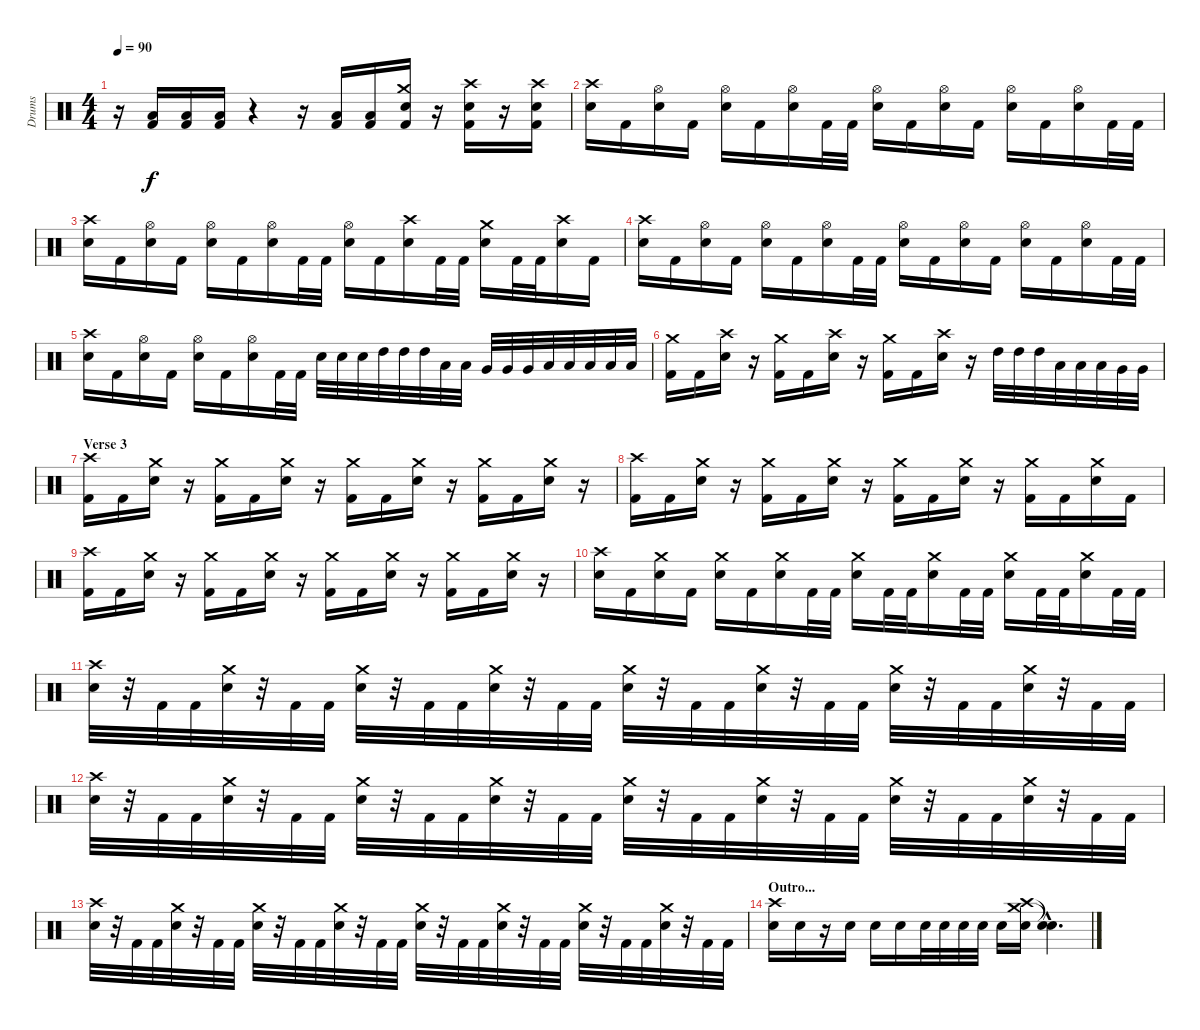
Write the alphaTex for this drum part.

\track ("Drums" "Drums") {instrument percussion}
\staff {score}
\articulation defaults
\ts (4 4)
\tempo 90
\clef neutral
\ks c
r.16{dy f} ("Low Tom (hit)" "Kick (hit) 2").16 ("Low Tom (hit)" "Kick (hit) 2").16 ("Low Tom (hit)" "Kick (hit) 2").16 r.4 r.16 ("Low Tom (hit)" "Kick (hit) 2").16 ("Low Tom (hit)" "Kick (hit) 2").16 ("Crash medium (hit)" "Snare (hit) 2" "Kick (hit) 2").16 r.16 ("Crash high (hit)" "Snare (hit) 2" "Kick (hit) 2").16 r.16 ("Crash high (hit)" "Snare (hit) 2" "Kick (hit) 2").16 |
("Crash high (hit)" "Snare (hit) 2").16 "Kick (hit) 2".16 ("Hi-Hat (open)" "Snare (hit) 2").16 "Kick (hit) 2".16 ("Hi-Hat (open)" "Snare (hit) 2").16 "Kick (hit) 2".16 ("Hi-Hat (open)" "Snare (hit) 2").16 "Kick (hit) 2".32 "Kick (hit) 2".32 ("Hi-Hat (open)" "Snare (hit) 2").16 "Kick (hit) 2".16 ("Hi-Hat (open)" "Snare (hit) 2").16 "Kick (hit) 2".16 ("Hi-Hat (open)" "Snare (hit) 2").16 "Kick (hit) 2".16 ("Hi-Hat (open)" "Snare (hit) 2").16 "Kick (hit) 2".32 "Kick (hit) 2".32 |
("Crash high (hit)" "Snare (hit) 2").16 "Kick (hit) 2".16 ("Hi-Hat (open)" "Snare (hit) 2").16 "Kick (hit) 2".16 ("Hi-Hat (open)" "Snare (hit) 2").16 "Kick (hit) 2".16 ("Hi-Hat (open)" "Snare (hit) 2").16 "Kick (hit) 2".32 "Kick (hit) 2".32 ("Hi-Hat (open)" "Snare (hit) 2").16 "Kick (hit) 2".16 ("Crash high (hit)" "Snare (hit) 2").16 "Kick (hit) 2".32 "Kick (hit) 2".32 ("Crash medium (hit)" "Snare (hit) 2").16 "Kick (hit) 2".32 "Kick (hit) 2".32 ("Crash high (hit)" "Snare (hit) 2").16 "Kick (hit) 2".16 |
("Crash high (hit)" "Snare (hit) 2").16 "Kick (hit) 2".16 ("Hi-Hat (open)" "Snare (hit) 2").16 "Kick (hit) 2".16 ("Hi-Hat (open)" "Snare (hit) 2").16 "Kick (hit) 2".16 ("Hi-Hat (open)" "Snare (hit) 2").16 "Kick (hit) 2".32 "Kick (hit) 2".32 ("Hi-Hat (open)" "Snare (hit) 2").16 "Kick (hit) 2".16 ("Hi-Hat (open)" "Snare (hit) 2").16 "Kick (hit) 2".16 ("Hi-Hat (open)" "Snare (hit) 2").16 "Kick (hit) 2".16 ("Hi-Hat (open)" "Snare (hit) 2").16 "Kick (hit) 2".32 "Kick (hit) 2".32 |
("Crash high (hit)" "Snare (hit) 2").16 "Kick (hit) 2".16 ("Hi-Hat (open)" "Snare (hit) 2").16 "Kick (hit) 2".16 ("Hi-Hat (open)" "Snare (hit) 2").16 "Kick (hit) 2".16 ("Hi-Hat (open)" "Snare (hit) 2").16 "Kick (hit) 2".32 "Kick (hit) 2".32 "Snare (hit) 2".32 "Snare (hit) 2".32 "Snare (hit) 2".32 "High Tom (hit)".32 "High Tom (hit)".32 "High Tom (hit)".32 "Low Tom (hit)".32 "Low Tom (hit)".32 "Very Low Tom (hit)".32 "Very Low Tom (hit)".32 "Very Low Tom (hit)".32 "Low Floor Tom (hit)".32 "Low Floor Tom (hit)".32 "Low Floor Tom (hit)".32 "Low Floor Tom (hit)".32 "Low Floor Tom (hit)".32 |
("Crash medium (hit)" "Kick (hit) 2").16 "Kick (hit) 2".16 ("Crash high (hit)" "Snare (hit) 2").16 r.16 ("Crash medium (hit)" "Kick (hit) 2").16 "Kick (hit) 2".16 ("Crash high (hit)" "Snare (hit) 2").16 r.16 ("Crash medium (hit)" "Kick (hit) 2").16 "Kick (hit) 2".16 ("Crash high (hit)" "Snare (hit) 2").16 r.16 "High Tom (hit)".32 "High Tom (hit)".32 "High Tom (hit)".32 "Low Tom (hit)".32 "Low Tom (hit)".32 "Low Tom (hit)".32 "Very Low Tom (hit)".32 "Very Low Tom (hit)".32 |
\section ("" "Verse 3")
("Crash high (hit)" "Kick (hit) 2").16 "Kick (hit) 2".16 ("Crash medium (hit)" "Snare (hit) 2").16 r.16 ("Crash medium (hit)" "Kick (hit) 2").16 "Kick (hit) 2".16 ("Crash medium (hit)" "Snare (hit) 2").16 r.16 ("Crash medium (hit)" "Kick (hit) 2").16 "Kick (hit) 2".16 ("Crash medium (hit)" "Snare (hit) 2").16 r.16 ("Crash medium (hit)" "Kick (hit) 2").16 "Kick (hit) 2".16 ("Crash medium (hit)" "Snare (hit) 2").16 r.16 |
("Crash high (hit)" "Kick (hit) 2").16 "Kick (hit) 2".16 ("Crash medium (hit)" "Snare (hit) 2").16 r.16 ("Crash medium (hit)" "Kick (hit) 2").16 "Kick (hit) 2".16 ("Crash medium (hit)" "Snare (hit) 2").16 r.16 ("Crash medium (hit)" "Kick (hit) 2").16 "Kick (hit) 2".16 ("Crash medium (hit)" "Snare (hit) 2").16 r.16 ("Crash medium (hit)" "Kick (hit) 2").16 "Kick (hit) 2".16 ("Crash medium (hit)" "Snare (hit) 2").16 "Kick (hit) 2".16 |
("Crash high (hit)" "Kick (hit) 2").16 "Kick (hit) 2".16 ("Crash medium (hit)" "Snare (hit) 2").16 r.16 ("Crash medium (hit)" "Kick (hit) 2").16 "Kick (hit) 2".16 ("Crash medium (hit)" "Snare (hit) 2").16 r.16 ("Crash medium (hit)" "Kick (hit) 2").16 "Kick (hit) 2".16 ("Crash medium (hit)" "Snare (hit) 2").16 r.16 ("Crash medium (hit)" "Kick (hit) 2").16 "Kick (hit) 2".16 ("Crash medium (hit)" "Snare (hit) 2").16 r.16 |
("Crash high (hit)" "Snare (hit) 2").16 "Kick (hit) 2".16 ("Crash medium (hit)" "Snare (hit) 2").16 "Kick (hit) 2".16 ("Crash medium (hit)" "Snare (hit) 2").16 "Kick (hit) 2".16 ("Crash medium (hit)" "Snare (hit) 2").16 "Kick (hit) 2".32 "Kick (hit) 2".32 ("Crash medium (hit)" "Snare (hit) 2").16 "Kick (hit) 2".32 "Kick (hit) 2".32 ("Crash medium (hit)" "Snare (hit) 2").16 "Kick (hit) 2".32 "Kick (hit) 2".32 ("Crash medium (hit)" "Snare (hit) 2").16 "Kick (hit) 2".32 "Kick (hit) 2".32 ("Crash medium (hit)" "Snare (hit) 2").16 "Kick (hit) 2".32 "Kick (hit) 2".32 |
("Crash high (hit)" "Snare (hit) 2").32 r.32 "Kick (hit) 2".32 "Kick (hit) 2".32 ("Crash medium (hit)" "Snare (hit) 2").32 r.32 "Kick (hit) 2".32 "Kick (hit) 2".32 ("Crash medium (hit)" "Snare (hit) 2").32 r.32 "Kick (hit) 2".32 "Kick (hit) 2".32 ("Crash medium (hit)" "Snare (hit) 2").32 r.32 "Kick (hit) 2".32 "Kick (hit) 2".32 ("Crash medium (hit)" "Snare (hit) 2").32 r.32 "Kick (hit) 2".32 "Kick (hit) 2".32 ("Crash medium (hit)" "Snare (hit) 2").32 r.32 "Kick (hit) 2".32 "Kick (hit) 2".32 ("Crash medium (hit)" "Snare (hit) 2").32 r.32 "Kick (hit) 2".32 "Kick (hit) 2".32 ("Crash medium (hit)" "Snare (hit) 2").32 r.32 "Kick (hit) 2".32 "Kick (hit) 2".32 |
("Crash high (hit)" "Snare (hit) 2").32 r.32 "Kick (hit) 2".32 "Kick (hit) 2".32 ("Crash medium (hit)" "Snare (hit) 2").32 r.32 "Kick (hit) 2".32 "Kick (hit) 2".32 ("Crash medium (hit)" "Snare (hit) 2").32 r.32 "Kick (hit) 2".32 "Kick (hit) 2".32 ("Crash medium (hit)" "Snare (hit) 2").32 r.32 "Kick (hit) 2".32 "Kick (hit) 2".32 ("Crash medium (hit)" "Snare (hit) 2").32 r.32 "Kick (hit) 2".32 "Kick (hit) 2".32 ("Crash medium (hit)" "Snare (hit) 2").32 r.32 "Kick (hit) 2".32 "Kick (hit) 2".32 ("Crash medium (hit)" "Snare (hit) 2").32 r.32 "Kick (hit) 2".32 "Kick (hit) 2".32 ("Crash medium (hit)" "Snare (hit) 2").32 r.32 "Kick (hit) 2".32 "Kick (hit) 2".32 |
("Crash high (hit)" "Snare (hit) 2").32 r.32 "Kick (hit) 2".32 "Kick (hit) 2".32 ("Crash medium (hit)" "Snare (hit) 2").32 r.32 "Kick (hit) 2".32 "Kick (hit) 2".32 ("Crash medium (hit)" "Snare (hit) 2").32 r.32 "Kick (hit) 2".32 "Kick (hit) 2".32 ("Crash medium (hit)" "Snare (hit) 2").32 r.32 "Kick (hit) 2".32 "Kick (hit) 2".32 ("Crash medium (hit)" "Snare (hit) 2").32 r.32 "Kick (hit) 2".32 "Kick (hit) 2".32 ("Crash medium (hit)" "Snare (hit) 2").32 r.32 "Kick (hit) 2".32 "Kick (hit) 2".32 ("Crash medium (hit)" "Snare (hit) 2").32 r.32 "Kick (hit) 2".32 "Kick (hit) 2".32 ("Crash medium (hit)" "Snare (hit) 2").32 r.32 "Kick (hit) 2".32 "Kick (hit) 2".32 |
\section ("" "Outro...")
("Crash high (hit)" "Snare (hit) 2").16 "Snare (hit) 2".16 r.16 "Snare (hit) 2".16 "Snare (hit) 2".16 "Snare (hit) 2".16 "Snare (hit) 2".32 "Snare (hit) 2".32 "Snare (hit) 2".32 "Snare (hit) 2".32 "Snare (hit) 2".16 ("Crash medium (hit)" "Crash high (hit)" "Snare (hit) 2").16 ("Snare (hit)"{hac t} "Snare (hit)"{hac t}).4{d}
